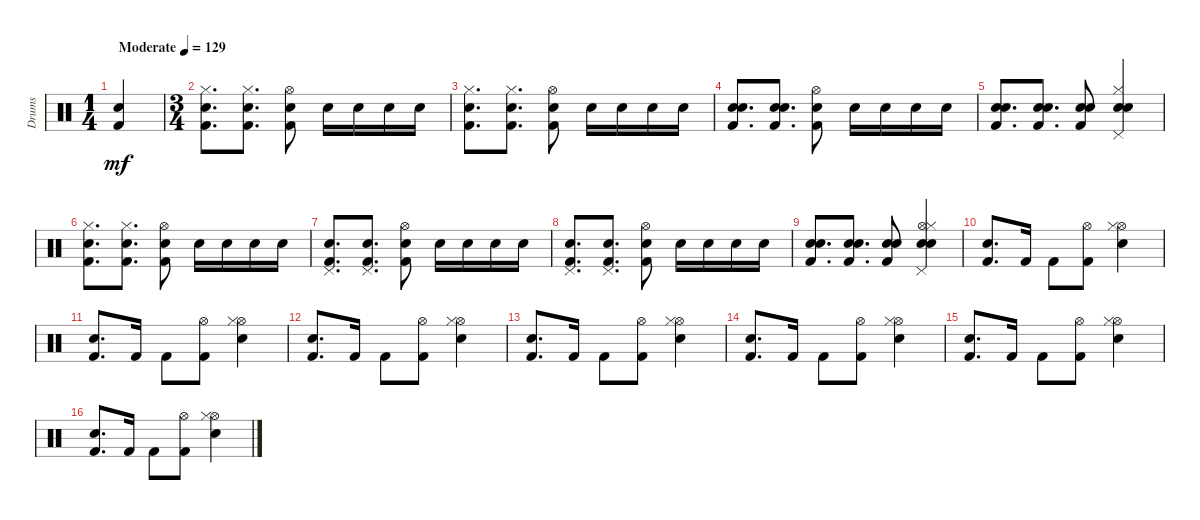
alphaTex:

\track ("Drums" "Drums") {instrument percussion}
\staff {score}
\articulation defaults
\ts (1 4)
\tempo (129 "Moderate")
\clef neutral
\ks c
("Kick (hit) 2" "Electric Snare (hit)").4{dy mf} |
\ts (3 4)
("Kick (hit) 2" "Snare (hit) 2" "Hi-Hat (closed)").8{d} ("Kick (hit) 2" "Snare (hit) 2" "Hi-Hat (closed)").8{d} ("Kick (hit) 2" "Snare (hit) 2" "Hi-Hat (open)").8 "Snare (hit) 2".16 "Snare (hit) 2".16 "Snare (hit) 2".16 "Snare (hit) 2".16 |
("Kick (hit) 2" "Snare (hit) 2" "Hi-Hat (closed)").8{d} ("Kick (hit) 2" "Snare (hit) 2" "Hi-Hat (closed)").8{d} ("Kick (hit) 2" "Snare (hit) 2" "Hi-Hat (open)").8 "Snare (hit) 2".16 "Snare (hit) 2".16 "Snare (hit) 2".16 "Snare (hit) 2".16 |
("Kick (hit) 2" "Snare (hit) 2" "Electric Snare (hit)").8{d} ("Kick (hit) 2" "Snare (hit) 2" "Electric Snare (hit)").8{d} ("Kick (hit) 2" "Snare (hit) 2" "Hi-Hat (open)").8 "Snare (hit) 2".16 "Snare (hit) 2".16 "Snare (hit) 2".16 "Snare (hit) 2".16 |
("Kick (hit) 2" "Snare (hit) 2" "Electric Snare (hit)").8{d} ("Kick (hit) 2" "Snare (hit) 2" "Electric Snare (hit)").8{d} ("Kick (hit) 2" "Snare (hit) 2" "Electric Snare (hit)").8 ("Electric Snare (hit)" "Snare (hit) 2" "Hi-Hat (closed)" "Pedal Hi-Hat (hit)").4 |
("Kick (hit) 2" "Snare (hit) 2" "Hi-Hat (closed)").8{d} ("Kick (hit) 2" "Snare (hit) 2" "Hi-Hat (closed)").8{d} ("Kick (hit) 2" "Snare (hit) 2" "Hi-Hat (open)").8 "Snare (hit) 2".16 "Snare (hit) 2".16 "Snare (hit) 2".16 "Snare (hit) 2".16 |
("Kick (hit) 2" "Snare (hit) 2" "Pedal Hi-Hat (hit)").8{d} ("Kick (hit) 2" "Snare (hit) 2" "Pedal Hi-Hat (hit)").8{d} ("Kick (hit) 2" "Snare (hit) 2" "Hi-Hat (open)").8 "Snare (hit) 2".16 "Snare (hit) 2".16 "Snare (hit) 2".16 "Snare (hit) 2".16 |
("Kick (hit) 2" "Snare (hit) 2" "Pedal Hi-Hat (hit)").8{d} ("Kick (hit) 2" "Snare (hit) 2" "Pedal Hi-Hat (hit)").8{d} ("Kick (hit) 2" "Snare (hit) 2" "Hi-Hat (open)").8 "Snare (hit) 2".16 "Snare (hit) 2".16 "Snare (hit) 2".16 "Snare (hit) 2".16 |
("Kick (hit) 2" "Snare (hit) 2" "Electric Snare (hit)").8{d} ("Kick (hit) 2" "Snare (hit) 2" "Electric Snare (hit)").8{d} ("Kick (hit) 2" "Snare (hit) 2" "Electric Snare (hit)").8 ("Hi-Hat (open)" "Electric Snare (hit)" "Snare (hit) 2" "Hi-Hat (closed)" "Pedal Hi-Hat (hit)").4 |
("Snare (hit) 2" "Kick (hit) 2").8{d} "Kick (hit) 2".16 "Kick (hit) 2".8 ("Hi-Hat (open)" "Kick (hit) 2").8 ("Electric Snare (hit)" "Hi-Hat (open)" "Hi-Hat (closed)").4 |
("Snare (hit) 2" "Kick (hit) 2").8{d} "Kick (hit) 2".16 "Kick (hit) 2".8 ("Hi-Hat (open)" "Kick (hit) 2").8 ("Electric Snare (hit)" "Hi-Hat (open)" "Hi-Hat (closed)").4 |
("Snare (hit) 2" "Kick (hit) 2").8{d} "Kick (hit) 2".16 "Kick (hit) 2".8 ("Hi-Hat (open)" "Kick (hit) 2").8 ("Electric Snare (hit)" "Hi-Hat (open)" "Hi-Hat (closed)").4 |
("Snare (hit) 2" "Kick (hit) 2").8{d} "Kick (hit) 2".16 "Kick (hit) 2".8 ("Hi-Hat (open)" "Kick (hit) 2").8 ("Electric Snare (hit)" "Hi-Hat (open)" "Hi-Hat (closed)").4 |
("Snare (hit) 2" "Kick (hit) 2").8{d} "Kick (hit) 2".16 "Kick (hit) 2".8 ("Hi-Hat (open)" "Kick (hit) 2").8 ("Electric Snare (hit)" "Hi-Hat (open)" "Hi-Hat (closed)").4 |
("Snare (hit) 2" "Kick (hit) 2").8{d} "Kick (hit) 2".16 "Kick (hit) 2".8 ("Hi-Hat (open)" "Kick (hit) 2").8 ("Electric Snare (hit)" "Hi-Hat (open)" "Hi-Hat (closed)").4 |
("Snare (hit) 2" "Kick (hit) 2").8{d} "Kick (hit) 2".16 "Kick (hit) 2".8 ("Hi-Hat (open)" "Kick (hit) 2").8 ("Electric Snare (hit)" "Hi-Hat (open)" "Hi-Hat (closed)").4
